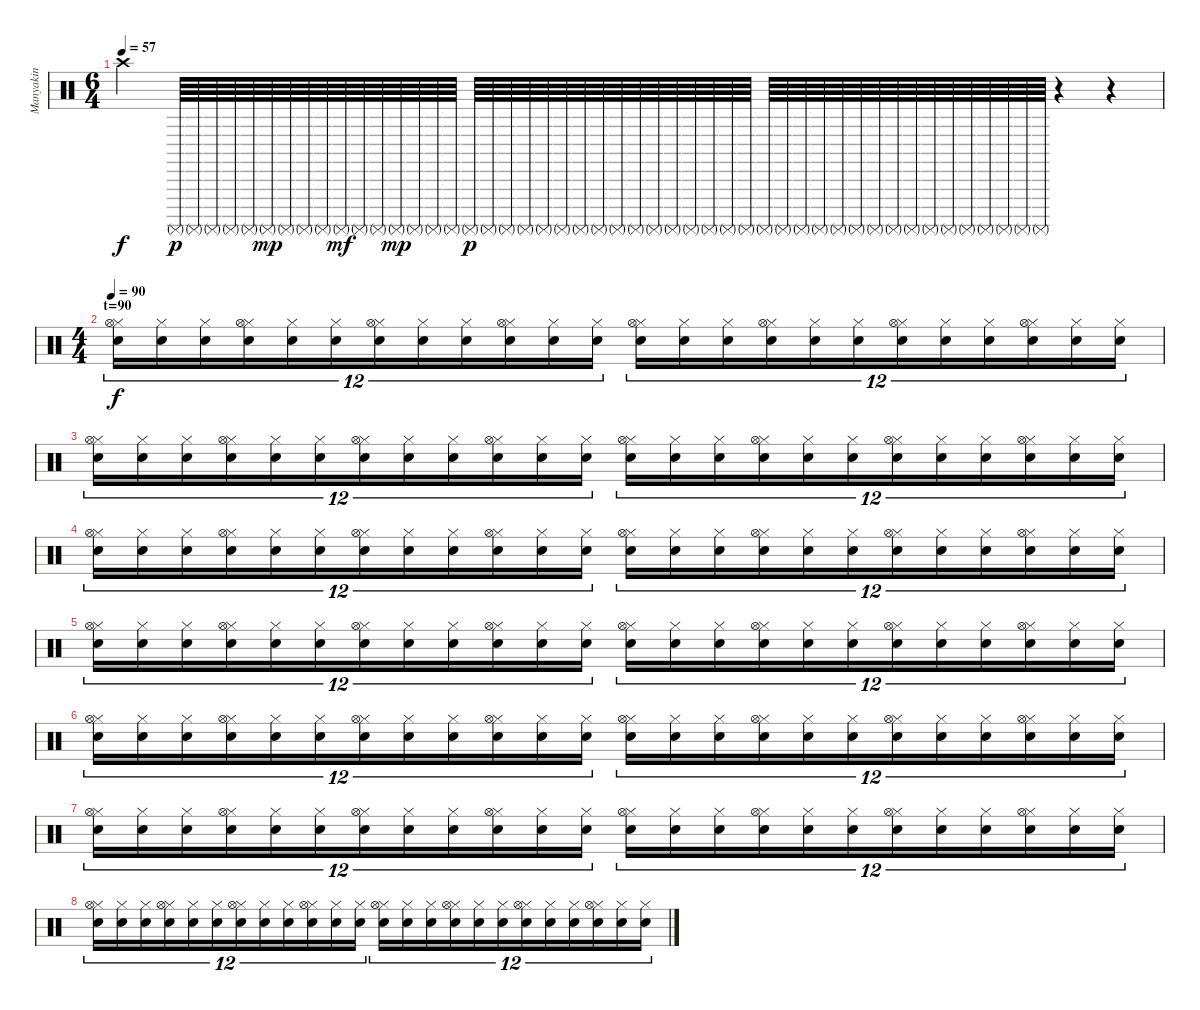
\track ("Manyakin" "Manyakin") {instrument percussion}
\staff {score}
\articulation defaults
\ts (6 4)
\tempo 57
\clef neutral
\ks c "Crash high (hit)".4{dy f} "Surdo (mute)".64{dy p} "Surdo (mute)".64 "Surdo (mute)".64 "Surdo (mute)".64 "Surdo (mute)".64 "Surdo (mute)".64{dy mp} "Surdo (mute)".64 "Surdo (mute)".64 "Surdo (mute)".64 "Surdo (mute)".64{dy mf} "Surdo (mute)".64 "Surdo (mute)".64 "Surdo (mute)".64{dy mp} "Surdo (mute)".64 "Surdo (mute)".64 "Surdo (mute)".64 "Surdo (mute)".64{dy p} "Surdo (mute)".64 "Surdo (mute)".64 "Surdo (mute)".64 "Surdo (mute)".64 "Surdo (mute)".64 "Surdo (mute)".64 "Surdo (mute)".64 "Surdo (mute)".64 "Surdo (mute)".64 "Surdo (mute)".64 "Surdo (mute)".64 "Surdo (mute)".64 "Surdo (mute)".64 "Surdo (mute)".64 "Surdo (mute)".64 "Surdo (mute)".64 "Surdo (mute)".64 "Surdo (mute)".64 "Surdo (mute)".64 "Surdo (mute)".64 "Surdo (mute)".64 "Surdo (mute)".64 "Surdo (mute)".64 "Surdo (mute)".64 "Surdo (mute)".64 "Surdo (mute)".64 "Surdo (mute)".64 "Surdo (mute)".64 "Surdo (mute)".64 "Surdo (mute)".64 "Surdo (mute)".64
r.4 r.4 |
\ts (4 4)
\section ("" "t=90")
\tempo 90
("Hi-Hat (closed)" "Hi-Hat (open)" "Snare (hit)"{x}).16{tu (12 8) dy f} ("Hi-Hat (closed)" "Snare (hit)"{x}).16{tu (12 8)} ("Hi-Hat (closed)" "Snare (hit)"{x}).16{tu (12 8)} ("Hi-Hat (closed)" "Hi-Hat (open)" "Snare (hit)"{x}).16{tu (12 8)} ("Hi-Hat (closed)" "Snare (hit)"{x}).16{tu (12 8)} ("Hi-Hat (closed)" "Snare (hit)"{x}).16{tu (12 8)} ("Hi-Hat (closed)" "Hi-Hat (open)" "Snare (hit)"{x}).16{tu (12 8)} ("Hi-Hat (closed)" "Snare (hit)"{x}).16{tu (12 8)} ("Hi-Hat (closed)" "Snare (hit)"{x}).16{tu (12 8)} ("Hi-Hat (closed)" "Hi-Hat (open)" "Snare (hit)"{x}).16{tu (12 8)} ("Hi-Hat (closed)" "Snare (hit)"{x}).16{tu (12 8)} ("Hi-Hat (closed)" "Snare (hit)"{x}).16{tu (12 8)} ("Hi-Hat (closed)" "Hi-Hat (open)" "Snare (hit)"{x}).16{tu (12 8)} ("Hi-Hat (closed)" "Snare (hit)"{x}).16{tu (12 8)} ("Hi-Hat (closed)" "Snare (hit)"{x}).16{tu (12 8)} ("Hi-Hat (closed)" "Hi-Hat (open)" "Snare (hit)"{x}).16{tu (12 8)} ("Hi-Hat (closed)" "Snare (hit)"{x}).16{tu (12 8)} ("Hi-Hat (closed)" "Snare (hit)"{x}).16{tu (12 8)} ("Hi-Hat (closed)" "Hi-Hat (open)" "Snare (hit)"{x}).16{tu (12 8)} ("Hi-Hat (closed)" "Snare (hit)"{x}).16{tu (12 8)} ("Hi-Hat (closed)" "Snare (hit)"{x}).16{tu (12 8)} ("Hi-Hat (closed)" "Hi-Hat (open)" "Snare (hit)"{x}).16{tu (12 8)} ("Hi-Hat (closed)" "Snare (hit)"{x}).16{tu (12 8)} ("Hi-Hat (closed)" "Snare (hit)"{x}).16{tu (12 8)} |
("Hi-Hat (closed)" "Hi-Hat (open)" "Snare (hit)"{x}).16{tu (12 8)} ("Hi-Hat (closed)" "Snare (hit)"{x}).16{tu (12 8)} ("Hi-Hat (closed)" "Snare (hit)"{x}).16{tu (12 8)} ("Hi-Hat (closed)" "Hi-Hat (open)" "Snare (hit)"{x}).16{tu (12 8)} ("Hi-Hat (closed)" "Snare (hit)"{x}).16{tu (12 8)} ("Hi-Hat (closed)" "Snare (hit)"{x}).16{tu (12 8)} ("Hi-Hat (closed)" "Hi-Hat (open)" "Snare (hit)"{x}).16{tu (12 8)} ("Hi-Hat (closed)" "Snare (hit)"{x}).16{tu (12 8)} ("Hi-Hat (closed)" "Snare (hit)"{x}).16{tu (12 8)} ("Hi-Hat (closed)" "Hi-Hat (open)" "Snare (hit)"{x}).16{tu (12 8)} ("Hi-Hat (closed)" "Snare (hit)"{x}).16{tu (12 8)} ("Hi-Hat (closed)" "Snare (hit)"{x}).16{tu (12 8)} ("Hi-Hat (closed)" "Hi-Hat (open)" "Snare (hit)"{x}).16{tu (12 8)} ("Hi-Hat (closed)" "Snare (hit)"{x}).16{tu (12 8)} ("Hi-Hat (closed)" "Snare (hit)"{x}).16{tu (12 8)} ("Hi-Hat (closed)" "Hi-Hat (open)" "Snare (hit)"{x}).16{tu (12 8)} ("Hi-Hat (closed)" "Snare (hit)"{x}).16{tu (12 8)} ("Hi-Hat (closed)" "Snare (hit)"{x}).16{tu (12 8)} ("Hi-Hat (closed)" "Hi-Hat (open)" "Snare (hit)"{x}).16{tu (12 8)} ("Hi-Hat (closed)" "Snare (hit)"{x}).16{tu (12 8)} ("Hi-Hat (closed)" "Snare (hit)"{x}).16{tu (12 8)} ("Hi-Hat (closed)" "Hi-Hat (open)" "Snare (hit)"{x}).16{tu (12 8)} ("Hi-Hat (closed)" "Snare (hit)"{x}).16{tu (12 8)} ("Hi-Hat (closed)" "Snare (hit)"{x}).16{tu (12 8)} |
("Hi-Hat (closed)" "Hi-Hat (open)" "Snare (hit)"{x}).16{tu (12 8)} ("Hi-Hat (closed)" "Snare (hit)"{x}).16{tu (12 8)} ("Hi-Hat (closed)" "Snare (hit)"{x}).16{tu (12 8)} ("Hi-Hat (closed)" "Hi-Hat (open)" "Snare (hit)"{x}).16{tu (12 8)} ("Hi-Hat (closed)" "Snare (hit)"{x}).16{tu (12 8)} ("Hi-Hat (closed)" "Snare (hit)"{x}).16{tu (12 8)} ("Hi-Hat (closed)" "Hi-Hat (open)" "Snare (hit)"{x}).16{tu (12 8)} ("Hi-Hat (closed)" "Snare (hit)"{x}).16{tu (12 8)} ("Hi-Hat (closed)" "Snare (hit)"{x}).16{tu (12 8)} ("Hi-Hat (closed)" "Hi-Hat (open)" "Snare (hit)"{x}).16{tu (12 8)} ("Hi-Hat (closed)" "Snare (hit)"{x}).16{tu (12 8)} ("Hi-Hat (closed)" "Snare (hit)"{x}).16{tu (12 8)} ("Hi-Hat (closed)" "Hi-Hat (open)" "Snare (hit)"{x}).16{tu (12 8)} ("Hi-Hat (closed)" "Snare (hit)"{x}).16{tu (12 8)} ("Hi-Hat (closed)" "Snare (hit)"{x}).16{tu (12 8)} ("Hi-Hat (closed)" "Hi-Hat (open)" "Snare (hit)"{x}).16{tu (12 8)} ("Hi-Hat (closed)" "Snare (hit)"{x}).16{tu (12 8)} ("Hi-Hat (closed)" "Snare (hit)"{x}).16{tu (12 8)} ("Hi-Hat (closed)" "Hi-Hat (open)" "Snare (hit)"{x}).16{tu (12 8)} ("Hi-Hat (closed)" "Snare (hit)"{x}).16{tu (12 8)} ("Hi-Hat (closed)" "Snare (hit)"{x}).16{tu (12 8)} ("Hi-Hat (closed)" "Hi-Hat (open)" "Snare (hit)"{x}).16{tu (12 8)} ("Hi-Hat (closed)" "Snare (hit)"{x}).16{tu (12 8)} ("Hi-Hat (closed)" "Snare (hit)"{x}).16{tu (12 8)} |
("Hi-Hat (closed)" "Hi-Hat (open)" "Snare (hit)"{x}).16{tu (12 8)} ("Hi-Hat (closed)" "Snare (hit)"{x}).16{tu (12 8)} ("Hi-Hat (closed)" "Snare (hit)"{x}).16{tu (12 8)} ("Hi-Hat (closed)" "Hi-Hat (open)" "Snare (hit)"{x}).16{tu (12 8)} ("Hi-Hat (closed)" "Snare (hit)"{x}).16{tu (12 8)} ("Hi-Hat (closed)" "Snare (hit)"{x}).16{tu (12 8)} ("Hi-Hat (closed)" "Hi-Hat (open)" "Snare (hit)"{x}).16{tu (12 8)} ("Hi-Hat (closed)" "Snare (hit)"{x}).16{tu (12 8)} ("Hi-Hat (closed)" "Snare (hit)"{x}).16{tu (12 8)} ("Hi-Hat (closed)" "Hi-Hat (open)" "Snare (hit)"{x}).16{tu (12 8)} ("Hi-Hat (closed)" "Snare (hit)"{x}).16{tu (12 8)} ("Hi-Hat (closed)" "Snare (hit)"{x}).16{tu (12 8)} ("Hi-Hat (closed)" "Hi-Hat (open)" "Snare (hit)"{x}).16{tu (12 8)} ("Hi-Hat (closed)" "Snare (hit)"{x}).16{tu (12 8)} ("Hi-Hat (closed)" "Snare (hit)"{x}).16{tu (12 8)} ("Hi-Hat (closed)" "Hi-Hat (open)" "Snare (hit)"{x}).16{tu (12 8)} ("Hi-Hat (closed)" "Snare (hit)"{x}).16{tu (12 8)} ("Hi-Hat (closed)" "Snare (hit)"{x}).16{tu (12 8)} ("Hi-Hat (closed)" "Hi-Hat (open)" "Snare (hit)"{x}).16{tu (12 8)} ("Hi-Hat (closed)" "Snare (hit)"{x}).16{tu (12 8)} ("Hi-Hat (closed)" "Snare (hit)"{x}).16{tu (12 8)} ("Hi-Hat (closed)" "Hi-Hat (open)" "Snare (hit)"{x}).16{tu (12 8)} ("Hi-Hat (closed)" "Snare (hit)"{x}).16{tu (12 8)} ("Hi-Hat (closed)" "Snare (hit)"{x}).16{tu (12 8)} |
("Hi-Hat (closed)" "Hi-Hat (open)" "Snare (hit)"{x}).16{tu (12 8)} ("Hi-Hat (closed)" "Snare (hit)"{x}).16{tu (12 8)} ("Hi-Hat (closed)" "Snare (hit)"{x}).16{tu (12 8)} ("Hi-Hat (closed)" "Hi-Hat (open)" "Snare (hit)"{x}).16{tu (12 8)} ("Hi-Hat (closed)" "Snare (hit)"{x}).16{tu (12 8)} ("Hi-Hat (closed)" "Snare (hit)"{x}).16{tu (12 8)} ("Hi-Hat (closed)" "Hi-Hat (open)" "Snare (hit)"{x}).16{tu (12 8)} ("Hi-Hat (closed)" "Snare (hit)"{x}).16{tu (12 8)} ("Hi-Hat (closed)" "Snare (hit)"{x}).16{tu (12 8)} ("Hi-Hat (closed)" "Hi-Hat (open)" "Snare (hit)"{x}).16{tu (12 8)} ("Hi-Hat (closed)" "Snare (hit)"{x}).16{tu (12 8)} ("Hi-Hat (closed)" "Snare (hit)"{x}).16{tu (12 8)} ("Hi-Hat (closed)" "Hi-Hat (open)" "Snare (hit)"{x}).16{tu (12 8)} ("Hi-Hat (closed)" "Snare (hit)"{x}).16{tu (12 8)} ("Hi-Hat (closed)" "Snare (hit)"{x}).16{tu (12 8)} ("Hi-Hat (closed)" "Hi-Hat (open)" "Snare (hit)"{x}).16{tu (12 8)} ("Hi-Hat (closed)" "Snare (hit)"{x}).16{tu (12 8)} ("Hi-Hat (closed)" "Snare (hit)"{x}).16{tu (12 8)} ("Hi-Hat (closed)" "Hi-Hat (open)" "Snare (hit)"{x}).16{tu (12 8)} ("Hi-Hat (closed)" "Snare (hit)"{x}).16{tu (12 8)} ("Hi-Hat (closed)" "Snare (hit)"{x}).16{tu (12 8)} ("Hi-Hat (closed)" "Hi-Hat (open)" "Snare (hit)"{x}).16{tu (12 8)} ("Hi-Hat (closed)" "Snare (hit)"{x}).16{tu (12 8)} ("Hi-Hat (closed)" "Snare (hit)"{x}).16{tu (12 8)} |
("Hi-Hat (closed)" "Hi-Hat (open)" "Snare (hit)"{x}).16{tu (12 8)} ("Hi-Hat (closed)" "Snare (hit)"{x}).16{tu (12 8)} ("Hi-Hat (closed)" "Snare (hit)"{x}).16{tu (12 8)} ("Hi-Hat (closed)" "Hi-Hat (open)" "Snare (hit)"{x}).16{tu (12 8)} ("Hi-Hat (closed)" "Snare (hit)"{x}).16{tu (12 8)} ("Hi-Hat (closed)" "Snare (hit)"{x}).16{tu (12 8)} ("Hi-Hat (closed)" "Hi-Hat (open)" "Snare (hit)"{x}).16{tu (12 8)} ("Hi-Hat (closed)" "Snare (hit)"{x}).16{tu (12 8)} ("Hi-Hat (closed)" "Snare (hit)"{x}).16{tu (12 8)} ("Hi-Hat (closed)" "Hi-Hat (open)" "Snare (hit)"{x}).16{tu (12 8)} ("Hi-Hat (closed)" "Snare (hit)"{x}).16{tu (12 8)} ("Hi-Hat (closed)" "Snare (hit)"{x}).16{tu (12 8)} ("Hi-Hat (closed)" "Hi-Hat (open)" "Snare (hit)"{x}).16{tu (12 8)} ("Hi-Hat (closed)" "Snare (hit)"{x}).16{tu (12 8)} ("Hi-Hat (closed)" "Snare (hit)"{x}).16{tu (12 8)} ("Hi-Hat (closed)" "Hi-Hat (open)" "Snare (hit)"{x}).16{tu (12 8)} ("Hi-Hat (closed)" "Snare (hit)"{x}).16{tu (12 8)} ("Hi-Hat (closed)" "Snare (hit)"{x}).16{tu (12 8)} ("Hi-Hat (closed)" "Hi-Hat (open)" "Snare (hit)"{x}).16{tu (12 8)} ("Hi-Hat (closed)" "Snare (hit)"{x}).16{tu (12 8)} ("Hi-Hat (closed)" "Snare (hit)"{x}).16{tu (12 8)} ("Hi-Hat (closed)" "Hi-Hat (open)" "Snare (hit)"{x}).16{tu (12 8)} ("Hi-Hat (closed)" "Snare (hit)"{x}).16{tu (12 8)} ("Hi-Hat (closed)" "Snare (hit)"{x}).16{tu (12 8)} |
("Hi-Hat (closed)" "Hi-Hat (open)" "Snare (hit)"{x}).16{tu (12 8)} ("Hi-Hat (closed)" "Snare (hit)"{x}).16{tu (12 8)} ("Hi-Hat (closed)" "Snare (hit)"{x}).16{tu (12 8)} ("Hi-Hat (closed)" "Hi-Hat (open)" "Snare (hit)"{x}).16{tu (12 8)} ("Hi-Hat (closed)" "Snare (hit)"{x}).16{tu (12 8)} ("Hi-Hat (closed)" "Snare (hit)"{x}).16{tu (12 8)} ("Hi-Hat (closed)" "Hi-Hat (open)" "Snare (hit)"{x}).16{tu (12 8)} ("Hi-Hat (closed)" "Snare (hit)"{x}).16{tu (12 8)} ("Hi-Hat (closed)" "Snare (hit)"{x}).16{tu (12 8)} ("Hi-Hat (closed)" "Hi-Hat (open)" "Snare (hit)"{x}).16{tu (12 8)} ("Hi-Hat (closed)" "Snare (hit)"{x}).16{tu (12 8)} ("Hi-Hat (closed)" "Snare (hit)"{x}).16{tu (12 8)} ("Hi-Hat (closed)" "Hi-Hat (open)" "Snare (hit)"{x}).16{tu (12 8)} ("Hi-Hat (closed)" "Snare (hit)"{x}).16{tu (12 8)} ("Hi-Hat (closed)" "Snare (hit)"{x}).16{tu (12 8)} ("Hi-Hat (closed)" "Hi-Hat (open)" "Snare (hit)"{x}).16{tu (12 8)} ("Hi-Hat (closed)" "Snare (hit)"{x}).16{tu (12 8)} ("Hi-Hat (closed)" "Snare (hit)"{x}).16{tu (12 8)} ("Hi-Hat (closed)" "Hi-Hat (open)" "Snare (hit)"{x}).16{tu (12 8)} ("Hi-Hat (closed)" "Snare (hit)"{x}).16{tu (12 8)} ("Hi-Hat (closed)" "Snare (hit)"{x}).16{tu (12 8)} ("Hi-Hat (closed)" "Hi-Hat (open)" "Snare (hit)"{x}).16{tu (12 8)} ("Hi-Hat (closed)" "Snare (hit)"{x}).16{tu (12 8)} ("Hi-Hat (closed)" "Snare (hit)"{x}).16{tu (12 8)}
